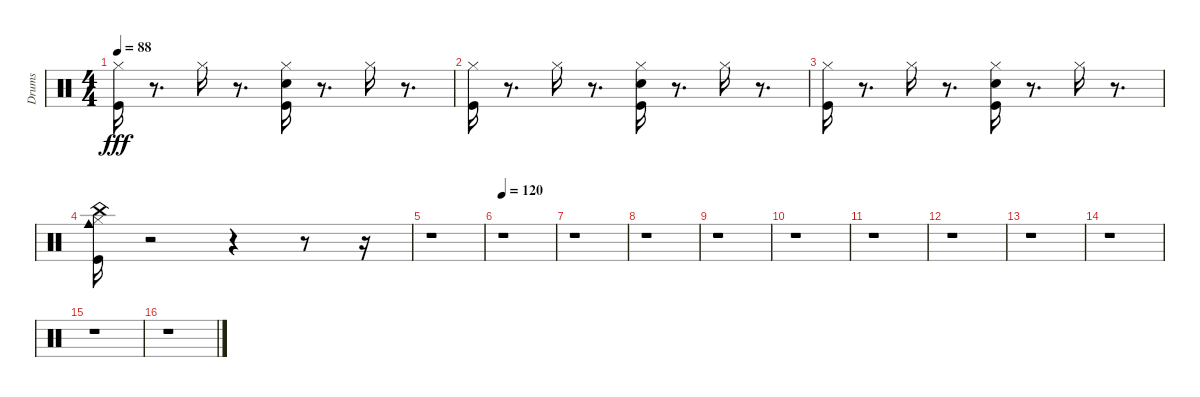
\track ("Drums" "Drums") {instrument percussion}
\staff {score}
\articulation defaults
\ts (4 4)
\tempo 88
\clef neutral
\ks c
("Hi-Hat (closed)" "Kick (hit)").16{dy fff} r.8{d} "Hi-Hat (closed)".16 r.8{d} ("Hi-Hat (closed)" "Electric Snare (hit)" "Kick (hit)").16 r.8{d} "Hi-Hat (closed)".16 r.8{d} |
("Hi-Hat (closed)" "Kick (hit)").16 r.8{d} "Hi-Hat (closed)".16 r.8{d} ("Hi-Hat (closed)" "Electric Snare (hit)" "Kick (hit)").16 r.8{d} "Hi-Hat (closed)".16 r.8{d} |
("Hi-Hat (closed)" "Kick (hit)").16 r.8{d} "Hi-Hat (closed)".16 r.8{d} ("Hi-Hat (closed)" "Electric Snare (hit)" "Kick (hit)").16 r.8{d} "Hi-Hat (closed)".16 r.8{d} |
("Hi-Hat (closed)" "Kick (hit)" "Cowbell medium (hit)" "China (hit)").16 r.2 r.4 r.8 r.16 |
r.1 |
\tempo 120
r.1 |
r.1 |
r.1 |
r.1 |
r.1 |
r.1 |
r.1 |
r.1 |
r.1 |
r.1 |
r.1
